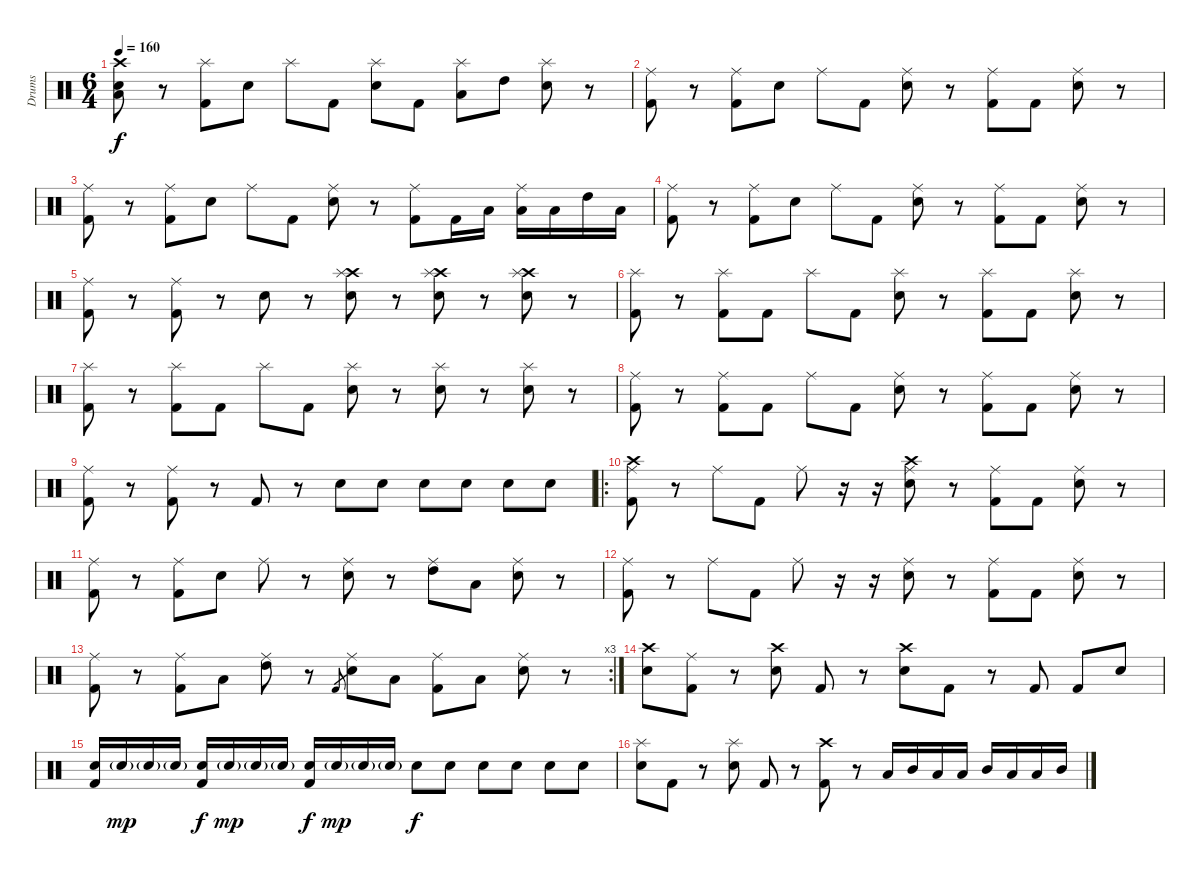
\track ("Drums" "Drums") {instrument percussion}
\staff {score}
\articulation defaults
\ts (6 4)
\tempo 160
\clef neutral
\ks c
("Crash high (hit)" "Low Tom (hit)" "Electric Snare (hit)").8{dy f} r.8 ("Splash (hit)" "Kick (hit) 2").8 "Electric Snare (hit)".8 "Splash (hit)".8 "Kick (hit) 2".8 ("Splash (hit)" "Electric Snare (hit)").8 "Kick (hit) 2".8 ("Splash (hit)" "Low Tom (hit)").8 "High Tom (hit)".8 ("Splash (hit)" "Electric Snare (hit)").8 r.8 |
("Ride (middle)" "Kick (hit) 2").8 r.8 ("Ride (middle)" "Kick (hit) 2").8 "Electric Snare (hit)".8 "Ride (middle)".8 "Kick (hit) 2".8 ("Ride (middle)" "Electric Snare (hit)").8 r.8 ("Ride (middle)" "Kick (hit) 2").8 "Kick (hit) 2".8 ("Ride (middle)" "Electric Snare (hit)").8 r.8 |
("Ride (middle)" "Kick (hit) 2").8 r.8 ("Ride (middle)" "Kick (hit) 2").8 "Electric Snare (hit)".8 "Ride (middle)".8 "Kick (hit) 2".8 ("Ride (middle)" "Electric Snare (hit)").8 r.8 ("Ride (middle)" "Kick (hit) 2").8 "Kick (hit) 2".16 "Low Tom (hit)".16 ("Ride (middle)" "Low Tom (hit)").16 "Low Tom (hit)".16 "High Tom (hit)".16 "Low Tom (hit)".16 |
("Ride (middle)" "Kick (hit) 2").8 r.8 ("Ride (middle)" "Kick (hit) 2").8 "Electric Snare (hit)".8 "Ride (middle)".8 "Kick (hit) 2".8 ("Ride (middle)" "Electric Snare (hit)").8 r.8 ("Ride (middle)" "Kick (hit) 2").8 "Kick (hit) 2".8 ("Ride (middle)" "Electric Snare (hit)").8 r.8 |
("Ride (middle)" "Kick (hit) 2").8 r.8 ("Ride (middle)" "Kick (hit) 2").8 r.8 "Electric Snare (hit)".8 r.8 ("Crash high (hit)" "Splash (hit)" "Electric Snare (hit)").8 r.8 ("Crash high (hit)" "Splash (hit)" "Electric Snare (hit)").8 r.8 ("Crash high (hit)" "Splash (hit)" "Electric Snare (hit)").8 r.8 |
("Splash (hit)" "Kick (hit) 2").8 r.8 ("Splash (hit)" "Kick (hit) 2").8 "Kick (hit) 2".8 "Splash (hit)".8 "Kick (hit) 2".8 ("Splash (hit)" "Electric Snare (hit)").8 r.8 ("Splash (hit)" "Kick (hit) 2").8 "Kick (hit) 2".8 ("Splash (hit)" "Electric Snare (hit)").8 r.8 |
("Splash (hit)" "Kick (hit) 2").8 r.8 ("Splash (hit)" "Kick (hit) 2").8 "Kick (hit) 2".8 "Splash (hit)".8 "Kick (hit) 2".8 ("Splash (hit)" "Electric Snare (hit)").8 r.8 ("Splash (hit)" "Electric Snare (hit)").8 r.8 ("Splash (hit)" "Electric Snare (hit)").8 r.8 |
("Ride (middle)" "Kick (hit) 2").8 r.8 ("Ride (middle)" "Kick (hit) 2").8 "Kick (hit) 2".8 "Ride (middle)".8 "Kick (hit) 2".8 ("Ride (middle)" "Electric Snare (hit)").8 r.8 ("Ride (middle)" "Kick (hit) 2").8 "Kick (hit) 2".8 ("Ride (middle)" "Electric Snare (hit)").8 r.8 |
("Ride (middle)" "Kick (hit) 2").8 r.8 ("Ride (middle)" "Kick (hit) 2").8 r.8 "Kick (hit) 2".8 r.8 "Electric Snare (hit)".8 "Electric Snare (hit)".8 "Electric Snare (hit)".8 "Electric Snare (hit)".8 "Electric Snare (hit)".8 "Electric Snare (hit)".8 |
\ro
("Crash high (hit)" "Ride (middle)" "Kick (hit) 2").8 r.8 "Ride (middle)".8 "Kick (hit) 2".8 "Ride (middle)".8 r.16 r.16 ("Crash high (hit)" "Ride (middle)" "Electric Snare (hit)").8 r.8 ("Ride (middle)" "Kick (hit) 2").8 "Kick (hit) 2".8 ("Ride (middle)" "Electric Snare (hit)").8 r.8 |
("Ride (middle)" "Kick (hit) 2").8 r.8 ("Ride (middle)" "Kick (hit) 2").8 "Electric Snare (hit)".8 "Ride (middle)".8 r.8 ("Ride (middle)" "Electric Snare (hit)").8 r.8 ("Ride (middle)" "High Tom (hit)").8 "Low Tom (hit)".8 ("Ride (middle)" "Electric Snare (hit)").8 r.8 |
("Ride (middle)" "Kick (hit) 2").8 r.8 "Ride (middle)".8 "Kick (hit) 2".8 "Ride (middle)".8 r.16 r.16 ("Ride (middle)" "Electric Snare (hit)").8 r.8 ("Ride (middle)" "Kick (hit) 2").8 "Kick (hit) 2".8 ("Ride (middle)" "Electric Snare (hit)").8 r.8 |
\rc 3
("Ride (middle)" "Kick (hit) 2").8 r.8 ("Ride (middle)" "Kick (hit) 2").8 "Low Tom (hit)".8 ("Ride (middle)" "High Tom (hit)").8 r.8 "Kick (hit) 2".8{gr} ("Ride (middle)" "Snare (hit) 2").8 "Low Tom (hit)".8 ("Ride (middle)" "Kick (hit) 2").8 "Low Tom (hit)".8 ("Ride (middle)" "Snare (hit) 2").8 r.8 |
("Crash high (hit)" "Electric Snare (hit)").8 ("Ride (middle)" "Kick (hit) 2").8 r.8 ("Crash high (hit)" "Electric Snare (hit)").8 "Kick (hit) 2".8 r.8 ("Crash high (hit)" "Electric Snare (hit)").8 "Kick (hit) 2".8 r.8 "Kick (hit) 2".8 "Kick (hit) 2".8 "Electric Snare (hit)".8 |
("Electric Snare (hit)" "Kick (hit) 2").16 "Electric Snare (hit)"{g}.16{dy mp} "Electric Snare (hit)"{g}.16 "Electric Snare (hit)"{g}.16 ("Electric Snare (hit)" "Kick (hit) 2").16{dy f} "Electric Snare (hit)"{g}.16{dy mp} "Electric Snare (hit)"{g}.16 "Electric Snare (hit)"{g}.16 ("Electric Snare (hit)" "Kick (hit) 2").16{dy f} "Electric Snare (hit)"{g}.16{dy mp} "Electric Snare (hit)"{g}.16 "Electric Snare (hit)"{g}.16 "Electric Snare (hit)".8{dy f} "Electric Snare (hit)".8 "Electric Snare (hit)".8 "Electric Snare (hit)".8 "Electric Snare (hit)".8 "Electric Snare (hit)".8 |
("Splash (hit)" "Electric Snare (hit)").8 "Kick (hit) 2".8 r.8 ("Splash (hit)" "Electric Snare (hit)").8 "Kick (hit) 2".8 r.8 ("Crash high (hit)" "Kick (hit) 2").8 r.8 "Low Tom (hit)".16 "Mid Tom (hit)".16 "Low Floor Tom (hit)".16 "Low Tom (hit)".16 "Mid Tom (hit)".16 "Low Tom (hit)".16 "Low Floor Tom (hit)".16 "Mid Tom (hit)".16
